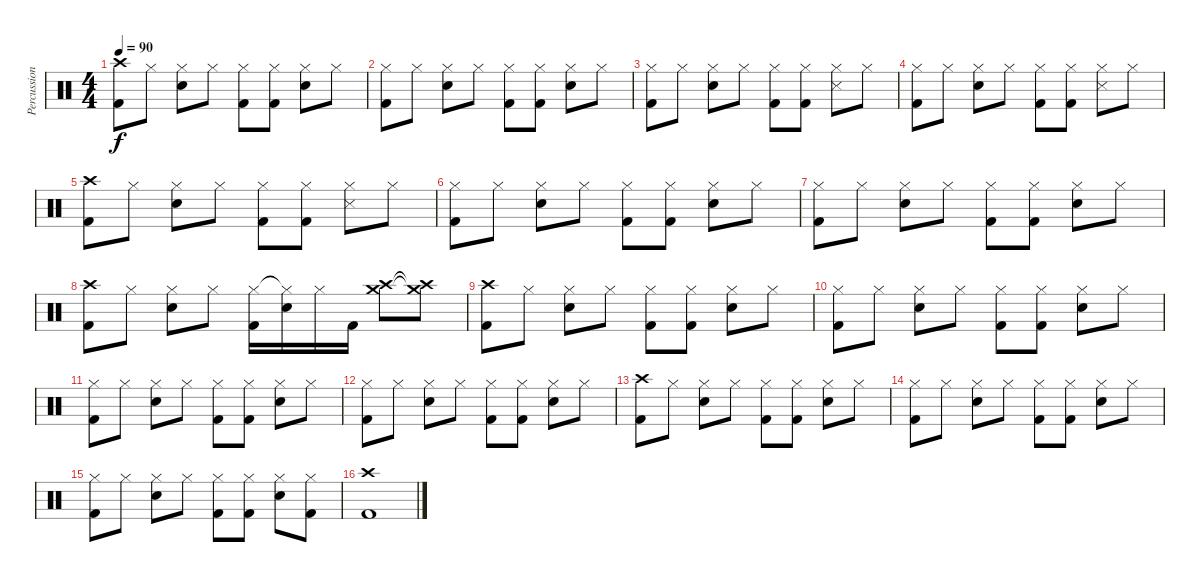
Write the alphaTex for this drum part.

\track ("Percussion" "Percussion") {instrument percussion}
\staff {score}
\articulation defaults
\ts (4 4)
\tempo 90
\clef neutral
\ks c
("Crash high (hit)" "Kick (hit) 2").8{dy f} "Hi-Hat (closed)".8 ("Hi-Hat (closed)" "Snare (hit) 2").8 "Hi-Hat (closed)".8 ("Hi-Hat (closed)" "Kick (hit) 2").8 ("Hi-Hat (closed)" "Kick (hit) 2").8 ("Hi-Hat (closed)" "Snare (hit) 2").8 "Hi-Hat (closed)".8 |
("Hi-Hat (closed)" "Kick (hit) 2").8 "Hi-Hat (closed)".8 ("Hi-Hat (closed)" "Snare (hit) 2").8 "Hi-Hat (closed)".8 ("Hi-Hat (closed)" "Kick (hit) 2").8 ("Hi-Hat (closed)" "Kick (hit) 2").8 ("Hi-Hat (closed)" "Snare (hit) 2").8 "Hi-Hat (closed)".8 |
("Hi-Hat (closed)" "Kick (hit) 2").8 "Hi-Hat (closed)".8 ("Hi-Hat (closed)" "Snare (hit) 2").8 "Hi-Hat (closed)".8 ("Hi-Hat (closed)" "Kick (hit) 2").8 ("Hi-Hat (closed)" "Kick (hit) 2").8 ("Hi-Hat (closed)" "Snare (side stick) 3").8 "Hi-Hat (closed)".8 |
("Hi-Hat (closed)" "Kick (hit) 2").8 "Hi-Hat (closed)".8 ("Hi-Hat (closed)" "Snare (hit) 2").8 "Hi-Hat (closed)".8 ("Hi-Hat (closed)" "Kick (hit) 2").8 ("Hi-Hat (closed)" "Kick (hit) 2").8 ("Hi-Hat (closed)" "Snare (side stick) 3").8 "Hi-Hat (closed)".8 |
("Crash high (hit)" "Kick (hit) 2").8 "Hi-Hat (closed)".8 ("Hi-Hat (closed)" "Snare (hit) 2").8 "Hi-Hat (closed)".8 ("Hi-Hat (closed)" "Kick (hit) 2").8 ("Hi-Hat (closed)" "Kick (hit) 2").8 ("Hi-Hat (closed)" "Snare (side stick) 3").8 "Hi-Hat (closed)".8 |
("Hi-Hat (closed)" "Kick (hit) 2").8 "Hi-Hat (closed)".8 ("Hi-Hat (closed)" "Snare (hit) 2").8 "Hi-Hat (closed)".8 ("Hi-Hat (closed)" "Kick (hit) 2").8 ("Hi-Hat (closed)" "Kick (hit) 2").8 ("Hi-Hat (closed)" "Snare (hit) 2").8 "Hi-Hat (closed)".8 |
("Hi-Hat (closed)" "Kick (hit) 2").8 "Hi-Hat (closed)".8 ("Hi-Hat (closed)" "Snare (hit) 2").8 "Hi-Hat (closed)".8 ("Hi-Hat (closed)" "Kick (hit) 2").8 ("Hi-Hat (closed)" "Kick (hit) 2").8 ("Hi-Hat (closed)" "Snare (hit) 2").8 "Hi-Hat (closed)".8 |
("Crash high (hit)" "Kick (hit) 2").8 "Hi-Hat (closed)".8 ("Hi-Hat (closed)" "Snare (hit) 2").8 "Hi-Hat (closed)".8 ("Hi-Hat (closed)" "Kick (hit) 2").16 ("Hi-Hat (closed)"{t} "Snare (hit) 2").16 "Hi-Hat (closed)".16 "Kick (hit) 2".16 ("Crash high (hit)" "Crash medium (hit)").8 ("Crash high (hit)"{t} "Crash medium (hit)"{t}).8 |
("Crash high (hit)" "Kick (hit) 2").8 "Hi-Hat (closed)".8 ("Hi-Hat (closed)" "Snare (hit) 2").8 "Hi-Hat (closed)".8 ("Hi-Hat (closed)" "Kick (hit) 2").8 ("Hi-Hat (closed)" "Kick (hit) 2").8 ("Hi-Hat (closed)" "Snare (hit) 2").8 "Hi-Hat (closed)".8 |
("Hi-Hat (closed)" "Kick (hit) 2").8 "Hi-Hat (closed)".8 ("Hi-Hat (closed)" "Snare (hit) 2").8 "Hi-Hat (closed)".8 ("Hi-Hat (closed)" "Kick (hit) 2").8 ("Hi-Hat (closed)" "Kick (hit) 2").8 ("Hi-Hat (closed)" "Snare (hit) 2").8 "Hi-Hat (closed)".8 |
("Hi-Hat (closed)" "Kick (hit) 2").8 "Hi-Hat (closed)".8 ("Hi-Hat (closed)" "Snare (hit) 2").8 "Hi-Hat (closed)".8 ("Hi-Hat (closed)" "Kick (hit) 2").8 ("Hi-Hat (closed)" "Kick (hit) 2").8 ("Hi-Hat (closed)" "Snare (hit) 2").8 "Hi-Hat (closed)".8 |
("Hi-Hat (closed)" "Kick (hit) 2").8 "Hi-Hat (closed)".8 ("Hi-Hat (closed)" "Snare (hit) 2").8 "Hi-Hat (closed)".8 ("Hi-Hat (closed)" "Kick (hit) 2").8 ("Hi-Hat (closed)" "Kick (hit) 2").8 ("Hi-Hat (closed)" "Snare (hit) 2").8 "Hi-Hat (closed)".8 |
("Crash high (hit)" "Kick (hit) 2").8 "Hi-Hat (closed)".8 ("Hi-Hat (closed)" "Snare (hit) 2").8 "Hi-Hat (closed)".8 ("Hi-Hat (closed)" "Kick (hit) 2").8 ("Hi-Hat (closed)" "Kick (hit) 2").8 ("Hi-Hat (closed)" "Snare (hit) 2").8 "Hi-Hat (closed)".8 |
("Hi-Hat (closed)" "Kick (hit) 2").8 "Hi-Hat (closed)".8 ("Hi-Hat (closed)" "Snare (hit) 2").8 "Hi-Hat (closed)".8 ("Hi-Hat (closed)" "Kick (hit) 2").8 ("Hi-Hat (closed)" "Kick (hit) 2").8 ("Hi-Hat (closed)" "Snare (hit) 2").8 "Hi-Hat (closed)".8 |
("Hi-Hat (closed)" "Kick (hit) 2").8 "Hi-Hat (closed)".8 ("Hi-Hat (closed)" "Snare (hit) 2").8 "Hi-Hat (closed)".8 ("Hi-Hat (closed)" "Kick (hit) 2").8 ("Hi-Hat (closed)" "Kick (hit) 2").8 ("Hi-Hat (closed)" "Snare (hit) 2").8 ("Hi-Hat (closed)" "Kick (hit) 2").8 |
("Crash high (hit)" "Kick (hit) 2").1
